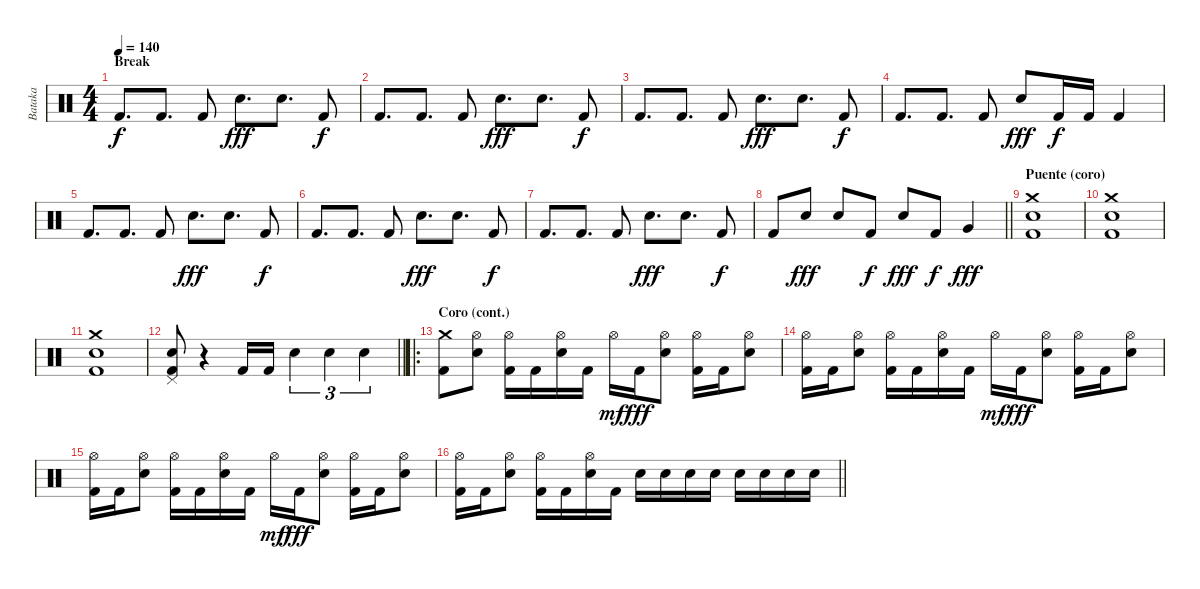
\track ("Bataka" "Bataka") {instrument percussion}
\staff {score}
\articulation defaults
\ts (4 4)
\section ("" "Break")
\tempo 140
\clef neutral
\ks c "Kick (hit) 2".8{d dy f} "Kick (hit) 2".8{d} "Kick (hit) 2".8 "Electric Snare (hit)".8{d dy fff} "Electric Snare (hit)".8{d} "Kick (hit) 2".8{dy f}
|
"Kick (hit) 2".8{d} "Kick (hit) 2".8{d} "Kick (hit) 2".8 "Electric Snare (hit)".8{d dy fff} "Electric Snare (hit)".8{d} "Kick (hit) 2".8{dy f} |
"Kick (hit) 2".8{d} "Kick (hit) 2".8{d} "Kick (hit) 2".8 "Electric Snare (hit)".8{d dy fff} "Electric Snare (hit)".8{d} "Kick (hit) 2".8{dy f} |
"Kick (hit) 2".8{d} "Kick (hit) 2".8{d} "Kick (hit) 2".8 "Electric Snare (hit)".8{dy fff} "Kick (hit) 2".16{dy f} "Kick (hit) 2".16 "Kick (hit) 2".4 |
"Kick (hit) 2".8{d} "Kick (hit) 2".8{d} "Kick (hit) 2".8 "Electric Snare (hit)".8{d dy fff} "Electric Snare (hit)".8{d} "Kick (hit) 2".8{dy f} |
"Kick (hit) 2".8{d} "Kick (hit) 2".8{d} "Kick (hit) 2".8 "Electric Snare (hit)".8{d dy fff} "Electric Snare (hit)".8{d} "Kick (hit) 2".8{dy f} |
"Kick (hit) 2".8{d} "Kick (hit) 2".8{d} "Kick (hit) 2".8 "Electric Snare (hit)".8{d dy fff} "Electric Snare (hit)".8{d} "Kick (hit) 2".8{dy f} |
\barLineRight lightlight "Kick (hit) 2".8 "Electric Snare (hit)".8{dy fff} "Electric Snare (hit)".8 "Kick (hit) 2".8{dy f} "Electric Snare (hit)".8{dy fff} "Kick (hit) 2".8{dy f} "Very Low Tom (hit)".4{dy fff}
|
\section ("" "Puente (coro)")
("Crash medium (hit)" "Electric Snare (hit)" "Kick (hit) 2").1 |
("Crash medium (hit)" "Electric Snare (hit)" "Kick (hit) 2").1 |
("Crash medium (hit)" "Electric Snare (hit)" "Kick (hit) 2").1 |
\barLineRight lightlight
("Pedal Hi-Hat (hit)" "Electric Snare (hit)" "Kick (hit) 2").8 r.4 "Kick (hit) 2".16 "Kick (hit) 2".16 "Electric Snare (hit)".4{tu (3 2)} "Electric Snare (hit)".4{tu (3 2)} "Electric Snare (hit)".4{tu (3 2)} |
\ro
\section ("" "Coro (cont.)")
("Crash medium (hit)" "Kick (hit) 2").8 ("Hi-Hat (open)" "Electric Snare (hit)").8 ("Hi-Hat (open)" "Kick (hit) 2").16 "Kick (hit) 2".16 ("Hi-Hat (open)" "Electric Snare (hit)").16 "Kick (hit) 2".16 "Hi-Hat (open)".16{dy mf} "Kick (hit) 2".16{dy fff} ("Hi-Hat (open)" "Electric Snare (hit)").8 ("Hi-Hat (open)" "Kick (hit) 2").16 "Kick (hit) 2".16 ("Hi-Hat (open)" "Electric Snare (hit)").8 |
("Hi-Hat (open)" "Kick (hit) 2").16 "Kick (hit) 2".16 ("Hi-Hat (open)" "Electric Snare (hit)").8 ("Hi-Hat (open)" "Kick (hit) 2").16 "Kick (hit) 2".16 ("Hi-Hat (open)" "Electric Snare (hit)").16 "Kick (hit) 2".16 "Hi-Hat (open)".16{dy mf} "Kick (hit) 2".16{dy fff} ("Hi-Hat (open)" "Electric Snare (hit)").8 ("Hi-Hat (open)" "Kick (hit) 2").16 "Kick (hit) 2".16 ("Hi-Hat (open)" "Electric Snare (hit)").8 |
("Hi-Hat (open)" "Kick (hit) 2").16 "Kick (hit) 2".16 ("Hi-Hat (open)" "Electric Snare (hit)").8 ("Hi-Hat (open)" "Kick (hit) 2").16 "Kick (hit) 2".16 ("Hi-Hat (open)" "Electric Snare (hit)").16 "Kick (hit) 2".16 "Hi-Hat (open)".16{dy mf} "Kick (hit) 2".16{dy fff} ("Hi-Hat (open)" "Electric Snare (hit)").8 ("Hi-Hat (open)" "Kick (hit) 2").16 "Kick (hit) 2".16 ("Hi-Hat (open)" "Electric Snare (hit)").8 |
\barLineRight lightlight
("Hi-Hat (open)" "Kick (hit) 2").16 "Kick (hit) 2".16 ("Hi-Hat (open)" "Electric Snare (hit)").8 ("Hi-Hat (open)" "Kick (hit) 2").16 "Kick (hit) 2".16 ("Hi-Hat (open)" "Electric Snare (hit)").16 "Kick (hit) 2".16 "Electric Snare (hit)".16 "Electric Snare (hit)".16 "Electric Snare (hit)".16 "Electric Snare (hit)".16 "Electric Snare (hit)".16 "Electric Snare (hit)".16 "Electric Snare (hit)".16 "Electric Snare (hit)".16
